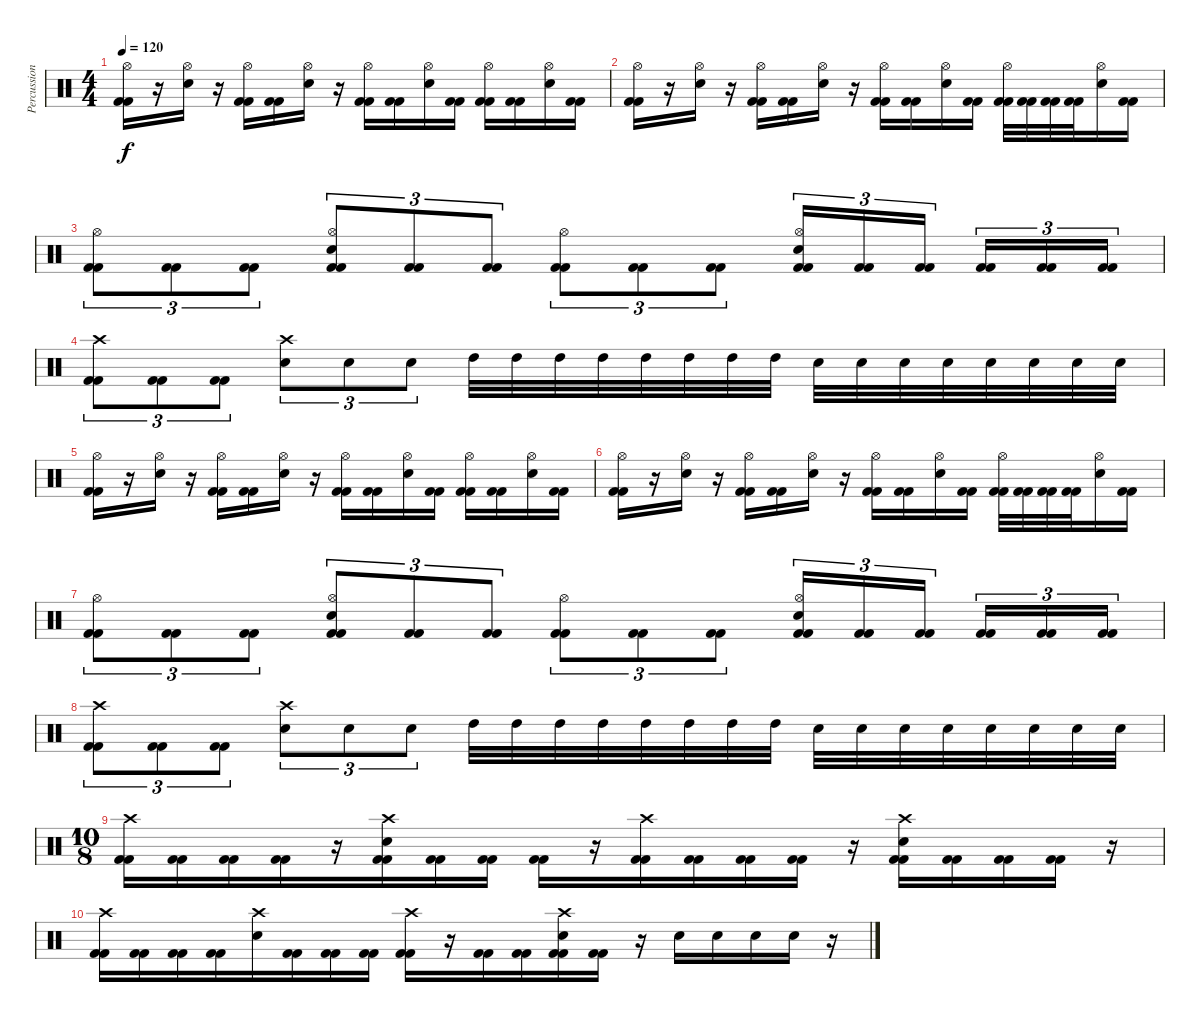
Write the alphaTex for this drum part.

\track ("Percussions" "Percussion") {instrument percussion}
\staff {score}
\articulation defaults
\ts (4 4)
\tempo 120
\clef neutral
\ks c
("Kick (hit) 2" "Kick (hit) 2" "Hi-Hat (open)").16{dy f} r.16 ("Electric Snare (hit)" "Hi-Hat (open)").16 r.16 ("Kick (hit) 2" "Kick (hit) 2" "Hi-Hat (open)").16 ("Kick (hit) 2" "Kick (hit) 2").16 ("Electric Snare (hit)" "Hi-Hat (open)").16 r.16 ("Kick (hit) 2" "Kick (hit) 2" "Hi-Hat (open)").16 ("Kick (hit) 2" "Kick (hit) 2").16 ("Electric Snare (hit)" "Hi-Hat (open)").16 ("Kick (hit) 2" "Kick (hit) 2").16 ("Kick (hit) 2" "Kick (hit) 2" "Hi-Hat (open)").16 ("Kick (hit) 2" "Kick (hit) 2").16 ("Electric Snare (hit)" "Hi-Hat (open)").16 ("Kick (hit) 2" "Kick (hit) 2").16 |
("Kick (hit) 2" "Kick (hit) 2" "Hi-Hat (open)").16 r.16 ("Electric Snare (hit)" "Hi-Hat (open)").16 r.16 ("Kick (hit) 2" "Kick (hit) 2" "Hi-Hat (open)").16 ("Kick (hit) 2" "Kick (hit) 2").16 ("Electric Snare (hit)" "Hi-Hat (open)").16 r.16 ("Kick (hit) 2" "Kick (hit) 2" "Hi-Hat (open)").16 ("Kick (hit) 2" "Kick (hit) 2").16 ("Electric Snare (hit)" "Hi-Hat (open)").16 ("Kick (hit) 2" "Kick (hit) 2").16 ("Kick (hit) 2" "Kick (hit) 2" "Hi-Hat (open)").32 ("Kick (hit) 2" "Kick (hit) 2").32 ("Kick (hit) 2" "Kick (hit) 2").32 ("Kick (hit) 2" "Kick (hit) 2").32 ("Electric Snare (hit)" "Hi-Hat (open)").16 ("Kick (hit) 2" "Kick (hit) 2").16 |
("Kick (hit) 2" "Kick (hit) 2" "Hi-Hat (open)").8{tu (3 2)} ("Kick (hit) 2" "Kick (hit) 2").8{tu (3 2)} ("Kick (hit) 2" "Kick (hit) 2").8{tu (3 2)} ("Kick (hit) 2" "Kick (hit) 2" "Electric Snare (hit)" "Hi-Hat (open)").8{tu (3 2)} ("Kick (hit) 2" "Kick (hit) 2").8{tu (3 2)} ("Kick (hit) 2" "Kick (hit) 2").8{tu (3 2)} ("Kick (hit) 2" "Kick (hit) 2" "Hi-Hat (open)").8{tu (3 2)} ("Kick (hit) 2" "Kick (hit) 2").8{tu (3 2)} ("Kick (hit) 2" "Kick (hit) 2").8{tu (3 2)} ("Kick (hit) 2" "Kick (hit) 2" "Electric Snare (hit)" "Hi-Hat (open)").16{tu (3 2)} ("Kick (hit) 2" "Kick (hit) 2").16{tu (3 2)} ("Kick (hit) 2" "Kick (hit) 2").16{tu (3 2)} ("Kick (hit) 2" "Kick (hit) 2").16{tu (3 2)} ("Kick (hit) 2" "Kick (hit) 2").16{tu (3 2)} ("Kick (hit) 2" "Kick (hit) 2").16{tu (3 2)} |
("Kick (hit) 2" "Kick (hit) 2" "Crash high (hit)").8{tu (3 2)} ("Kick (hit) 2" "Kick (hit) 2").8{tu (3 2)} ("Kick (hit) 2" "Kick (hit) 2").8{tu (3 2)} ("Electric Snare (hit)" "Crash high (hit)").8{tu (3 2)} "Electric Snare (hit)".8{tu (3 2)} "Electric Snare (hit)".8{tu (3 2)} "High Tom (hit)".32 "High Tom (hit)".32 "High Tom (hit)".32 "High Tom (hit)".32 "High Tom (hit)".32 "High Tom (hit)".32 "High Tom (hit)".32 "High Tom (hit)".32 "Electric Snare (hit)".32 "Electric Snare (hit)".32 "Electric Snare (hit)".32 "Electric Snare (hit)".32 "Electric Snare (hit)".32 "Electric Snare (hit)".32 "Electric Snare (hit)".32 "Electric Snare (hit)".32 |
("Kick (hit) 2" "Kick (hit) 2" "Hi-Hat (open)").16 r.16 ("Electric Snare (hit)" "Hi-Hat (open)").16 r.16 ("Kick (hit) 2" "Kick (hit) 2" "Hi-Hat (open)").16 ("Kick (hit) 2" "Kick (hit) 2").16 ("Electric Snare (hit)" "Hi-Hat (open)").16 r.16 ("Kick (hit) 2" "Kick (hit) 2" "Hi-Hat (open)").16 ("Kick (hit) 2" "Kick (hit) 2").16 ("Electric Snare (hit)" "Hi-Hat (open)").16 ("Kick (hit) 2" "Kick (hit) 2").16 ("Kick (hit) 2" "Kick (hit) 2" "Hi-Hat (open)").16 ("Kick (hit) 2" "Kick (hit) 2").16 ("Electric Snare (hit)" "Hi-Hat (open)").16 ("Kick (hit) 2" "Kick (hit) 2").16 |
("Kick (hit) 2" "Kick (hit) 2" "Hi-Hat (open)").16 r.16 ("Electric Snare (hit)" "Hi-Hat (open)").16 r.16 ("Kick (hit) 2" "Kick (hit) 2" "Hi-Hat (open)").16 ("Kick (hit) 2" "Kick (hit) 2").16 ("Electric Snare (hit)" "Hi-Hat (open)").16 r.16 ("Kick (hit) 2" "Kick (hit) 2" "Hi-Hat (open)").16 ("Kick (hit) 2" "Kick (hit) 2").16 ("Electric Snare (hit)" "Hi-Hat (open)").16 ("Kick (hit) 2" "Kick (hit) 2").16 ("Kick (hit) 2" "Kick (hit) 2" "Hi-Hat (open)").32 ("Kick (hit) 2" "Kick (hit) 2").32 ("Kick (hit) 2" "Kick (hit) 2").32 ("Kick (hit) 2" "Kick (hit) 2").32 ("Electric Snare (hit)" "Hi-Hat (open)").16 ("Kick (hit) 2" "Kick (hit) 2").16 |
("Kick (hit) 2" "Kick (hit) 2" "Hi-Hat (open)").8{tu (3 2)} ("Kick (hit) 2" "Kick (hit) 2").8{tu (3 2)} ("Kick (hit) 2" "Kick (hit) 2").8{tu (3 2)} ("Kick (hit) 2" "Kick (hit) 2" "Electric Snare (hit)" "Hi-Hat (open)").8{tu (3 2)} ("Kick (hit) 2" "Kick (hit) 2").8{tu (3 2)} ("Kick (hit) 2" "Kick (hit) 2").8{tu (3 2)} ("Kick (hit) 2" "Kick (hit) 2" "Hi-Hat (open)").8{tu (3 2)} ("Kick (hit) 2" "Kick (hit) 2").8{tu (3 2)} ("Kick (hit) 2" "Kick (hit) 2").8{tu (3 2)} ("Kick (hit) 2" "Kick (hit) 2" "Electric Snare (hit)" "Hi-Hat (open)").16{tu (3 2)} ("Kick (hit) 2" "Kick (hit) 2").16{tu (3 2)} ("Kick (hit) 2" "Kick (hit) 2").16{tu (3 2)} ("Kick (hit) 2" "Kick (hit) 2").16{tu (3 2)} ("Kick (hit) 2" "Kick (hit) 2").16{tu (3 2)} ("Kick (hit) 2" "Kick (hit) 2").16{tu (3 2)} |
("Kick (hit) 2" "Kick (hit) 2" "Crash high (hit)").8{tu (3 2)} ("Kick (hit) 2" "Kick (hit) 2").8{tu (3 2)} ("Kick (hit) 2" "Kick (hit) 2").8{tu (3 2)} ("Electric Snare (hit)" "Crash high (hit)").8{tu (3 2)} "Electric Snare (hit)".8{tu (3 2)} "Electric Snare (hit)".8{tu (3 2)} "High Tom (hit)".32 "High Tom (hit)".32 "High Tom (hit)".32 "High Tom (hit)".32 "High Tom (hit)".32 "High Tom (hit)".32 "High Tom (hit)".32 "High Tom (hit)".32 "Electric Snare (hit)".32 "Electric Snare (hit)".32 "Electric Snare (hit)".32 "Electric Snare (hit)".32 "Electric Snare (hit)".32 "Electric Snare (hit)".32 "Electric Snare (hit)".32 "Electric Snare (hit)".32 |
\ts (10 8)
("Kick (hit) 2" "Kick (hit) 2" "Crash high (hit)").16 ("Kick (hit) 2" "Kick (hit) 2").16 ("Kick (hit) 2" "Kick (hit) 2").16 ("Kick (hit) 2" "Kick (hit) 2").16 r.16 ("Kick (hit) 2" "Kick (hit) 2" "Electric Snare (hit)" "Crash high (hit)").16 ("Kick (hit) 2" "Kick (hit) 2").16 ("Kick (hit) 2" "Kick (hit) 2").16 ("Kick (hit) 2" "Kick (hit) 2").16 r.16 ("Kick (hit) 2" "Kick (hit) 2" "Crash high (hit)").16 ("Kick (hit) 2" "Kick (hit) 2").16 ("Kick (hit) 2" "Kick (hit) 2").16 ("Kick (hit) 2" "Kick (hit) 2").16 r.16 ("Kick (hit) 2" "Kick (hit) 2" "Electric Snare (hit)" "Crash high (hit)").16 ("Kick (hit) 2" "Kick (hit) 2").16 ("Kick (hit) 2" "Kick (hit) 2").16 ("Kick (hit) 2" "Kick (hit) 2").16 r.16 |
("Kick (hit) 2" "Kick (hit) 2" "Crash high (hit)").16 ("Kick (hit) 2" "Kick (hit) 2").16 ("Kick (hit) 2" "Kick (hit) 2").16 ("Kick (hit) 2" "Kick (hit) 2").16 ("Electric Snare (hit)" "Crash high (hit)").16 ("Kick (hit) 2" "Kick (hit) 2").16 ("Kick (hit) 2" "Kick (hit) 2").16 ("Kick (hit) 2" "Kick (hit) 2").16 ("Kick (hit) 2" "Kick (hit) 2" "Crash high (hit)").16 r.16 ("Kick (hit) 2" "Kick (hit) 2").16 ("Kick (hit) 2" "Kick (hit) 2").16 ("Kick (hit) 2" "Kick (hit) 2" "Electric Snare (hit)" "Crash high (hit)").16 ("Kick (hit) 2" "Kick (hit) 2").16 r.16 "Electric Snare (hit)".16 "Electric Snare (hit)".16 "Electric Snare (hit)".16 "Electric Snare (hit)".16 r.16
